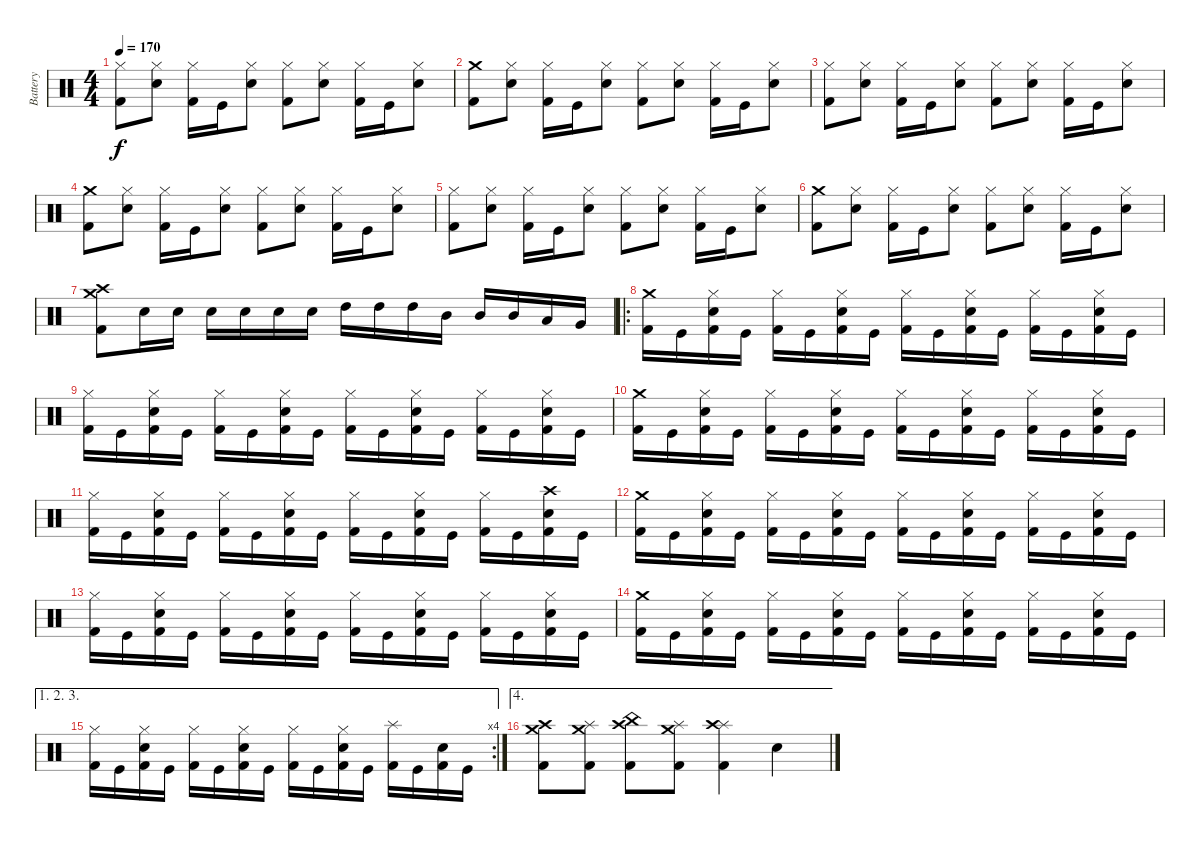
\track ("Battery" "Battery") {instrument percussion}
\staff {score}
\articulation defaults
\ts (4 4)
\tempo 170
\clef neutral
\ks c
("Hi-Hat (closed)" "Kick (hit) 2").8{dy f} ("Hi-Hat (closed)" "Snare (hit) 2").8 ("Hi-Hat (closed)" "Kick (hit) 2").16 "Kick (hit)".16 ("Hi-Hat (closed)" "Snare (hit) 2").8 ("Hi-Hat (closed)" "Kick (hit) 2").8 ("Hi-Hat (closed)" "Snare (hit) 2").8 ("Hi-Hat (closed)" "Kick (hit) 2").16 "Kick (hit)".16 ("Hi-Hat (closed)" "Snare (hit) 2").8 |
("Crash medium (hit)" "Kick (hit) 2").8 ("Hi-Hat (closed)" "Snare (hit) 2").8 ("Hi-Hat (closed)" "Kick (hit) 2").16 "Kick (hit)".16 ("Hi-Hat (closed)" "Snare (hit) 2").8 ("Hi-Hat (closed)" "Kick (hit) 2").8 ("Hi-Hat (closed)" "Snare (hit) 2").8 ("Hi-Hat (closed)" "Kick (hit) 2").16 "Kick (hit)".16 ("Hi-Hat (closed)" "Snare (hit) 2").8 |
("Hi-Hat (closed)" "Kick (hit) 2").8 ("Hi-Hat (closed)" "Snare (hit) 2").8 ("Hi-Hat (closed)" "Kick (hit) 2").16 "Kick (hit)".16 ("Hi-Hat (closed)" "Snare (hit) 2").8 ("Hi-Hat (closed)" "Kick (hit) 2").8 ("Hi-Hat (closed)" "Snare (hit) 2").8 ("Hi-Hat (closed)" "Kick (hit) 2").16 "Kick (hit)".16 ("Hi-Hat (closed)" "Snare (hit) 2").8 |
("Crash medium (hit)" "Kick (hit) 2").8 ("Hi-Hat (closed)" "Snare (hit) 2").8 ("Hi-Hat (closed)" "Kick (hit) 2").16 "Kick (hit)".16 ("Hi-Hat (closed)" "Snare (hit) 2").8 ("Hi-Hat (closed)" "Kick (hit) 2").8 ("Hi-Hat (closed)" "Snare (hit) 2").8 ("Hi-Hat (closed)" "Kick (hit) 2").16 "Kick (hit)".16 ("Hi-Hat (closed)" "Snare (hit) 2").8 |
("Hi-Hat (closed)" "Kick (hit) 2").8 ("Hi-Hat (closed)" "Snare (hit) 2").8 ("Hi-Hat (closed)" "Kick (hit) 2").16 "Kick (hit)".16 ("Hi-Hat (closed)" "Snare (hit) 2").8 ("Hi-Hat (closed)" "Kick (hit) 2").8 ("Hi-Hat (closed)" "Snare (hit) 2").8 ("Hi-Hat (closed)" "Kick (hit) 2").16 "Kick (hit)".16 ("Hi-Hat (closed)" "Snare (hit) 2").8 |
("Crash medium (hit)" "Kick (hit) 2").8 ("Hi-Hat (closed)" "Snare (hit) 2").8 ("Hi-Hat (closed)" "Kick (hit) 2").16 "Kick (hit)".16 ("Hi-Hat (closed)" "Snare (hit) 2").8 ("Hi-Hat (closed)" "Kick (hit) 2").8 ("Hi-Hat (closed)" "Snare (hit) 2").8 ("Hi-Hat (closed)" "Kick (hit) 2").16 "Kick (hit)".16 ("Hi-Hat (closed)" "Snare (hit) 2").8 |
("Crash high (hit)" "Crash medium (hit)" "Kick (hit) 2").8 "Snare (hit) 2".16 "Snare (hit) 2".16 "Snare (hit) 2".16 "Snare (hit) 2".16 "Snare (hit) 2".16 "Snare (hit) 2".16 "High Tom (hit)".16 "High Tom (hit)".16 "High Tom (hit)".16 "Mid Tom (hit)".16 "Mid Tom (hit)".16 "Mid Tom (hit)".16 "Low Tom (hit)".16 "Very Low Tom (hit)".16 |
\ro
("Crash medium (hit)" "Kick (hit) 2").16 "Kick (hit)".16 ("Hi-Hat (closed)" "Snare (hit) 2" "Kick (hit) 2").16 "Kick (hit)".16 ("Hi-Hat (closed)" "Kick (hit) 2").16 "Kick (hit)".16 ("Hi-Hat (closed)" "Snare (hit) 2" "Kick (hit) 2").16 "Kick (hit)".16 ("Hi-Hat (closed)" "Kick (hit) 2").16 "Kick (hit)".16 ("Hi-Hat (closed)" "Snare (hit) 2" "Kick (hit) 2").16 "Kick (hit)".16 ("Hi-Hat (closed)" "Kick (hit) 2").16 "Kick (hit)".16 ("Hi-Hat (closed)" "Snare (hit) 2" "Kick (hit) 2").16 "Kick (hit)".16 |
("Hi-Hat (closed)" "Kick (hit) 2").16 "Kick (hit)".16 ("Hi-Hat (closed)" "Snare (hit) 2" "Kick (hit) 2").16 "Kick (hit)".16 ("Hi-Hat (closed)" "Kick (hit) 2").16 "Kick (hit)".16 ("Hi-Hat (closed)" "Snare (hit) 2" "Kick (hit) 2").16 "Kick (hit)".16 ("Hi-Hat (closed)" "Kick (hit) 2").16 "Kick (hit)".16 ("Hi-Hat (closed)" "Snare (hit) 2" "Kick (hit) 2").16 "Kick (hit)".16 ("Hi-Hat (closed)" "Kick (hit) 2").16 "Kick (hit)".16 ("Hi-Hat (closed)" "Snare (hit) 2" "Kick (hit) 2").16 "Kick (hit)".16 |
("Crash medium (hit)" "Kick (hit) 2").16 "Kick (hit)".16 ("Hi-Hat (closed)" "Snare (hit) 2" "Kick (hit) 2").16 "Kick (hit)".16 ("Hi-Hat (closed)" "Kick (hit) 2").16 "Kick (hit)".16 ("Hi-Hat (closed)" "Snare (hit) 2" "Kick (hit) 2").16 "Kick (hit)".16 ("Hi-Hat (closed)" "Kick (hit) 2").16 "Kick (hit)".16 ("Hi-Hat (closed)" "Snare (hit) 2" "Kick (hit) 2").16 "Kick (hit)".16 ("Hi-Hat (closed)" "Kick (hit) 2").16 "Kick (hit)".16 ("Hi-Hat (closed)" "Snare (hit) 2" "Kick (hit) 2").16 "Kick (hit)".16 |
("Hi-Hat (closed)" "Kick (hit) 2").16 "Kick (hit)".16 ("Hi-Hat (closed)" "Snare (hit) 2" "Kick (hit) 2").16 "Kick (hit)".16 ("Hi-Hat (closed)" "Kick (hit) 2").16 "Kick (hit)".16 ("Hi-Hat (closed)" "Snare (hit) 2" "Kick (hit) 2").16 "Kick (hit)".16 ("Hi-Hat (closed)" "Kick (hit) 2").16 "Kick (hit)".16 ("Hi-Hat (closed)" "Snare (hit) 2" "Kick (hit) 2").16 "Kick (hit)".16 ("Hi-Hat (closed)" "Kick (hit) 2").16 "Kick (hit)".16 ("Crash high (hit)" "Snare (hit) 2" "Kick (hit) 2").16 "Kick (hit)".16 |
("Crash medium (hit)" "Kick (hit) 2").16 "Kick (hit)".16 ("Hi-Hat (closed)" "Snare (hit) 2" "Kick (hit) 2").16 "Kick (hit)".16 ("Hi-Hat (closed)" "Kick (hit) 2").16 "Kick (hit)".16 ("Hi-Hat (closed)" "Snare (hit) 2" "Kick (hit) 2").16 "Kick (hit)".16 ("Hi-Hat (closed)" "Kick (hit) 2").16 "Kick (hit)".16 ("Hi-Hat (closed)" "Snare (hit) 2" "Kick (hit) 2").16 "Kick (hit)".16 ("Hi-Hat (closed)" "Kick (hit) 2").16 "Kick (hit)".16 ("Hi-Hat (closed)" "Snare (hit) 2" "Kick (hit) 2").16 "Kick (hit)".16 |
("Hi-Hat (closed)" "Kick (hit) 2").16 "Kick (hit)".16 ("Hi-Hat (closed)" "Snare (hit) 2" "Kick (hit) 2").16 "Kick (hit)".16 ("Hi-Hat (closed)" "Kick (hit) 2").16 "Kick (hit)".16 ("Hi-Hat (closed)" "Snare (hit) 2" "Kick (hit) 2").16 "Kick (hit)".16 ("Hi-Hat (closed)" "Kick (hit) 2").16 "Kick (hit)".16 ("Hi-Hat (closed)" "Snare (hit) 2" "Kick (hit) 2").16 "Kick (hit)".16 ("Hi-Hat (closed)" "Kick (hit) 2").16 "Kick (hit)".16 ("Hi-Hat (closed)" "Snare (hit) 2" "Kick (hit) 2").16 "Kick (hit)".16 |
("Crash medium (hit)" "Kick (hit) 2").16 "Kick (hit)".16 ("Hi-Hat (closed)" "Snare (hit) 2" "Kick (hit) 2").16 "Kick (hit)".16 ("Hi-Hat (closed)" "Kick (hit) 2").16 "Kick (hit)".16 ("Hi-Hat (closed)" "Snare (hit) 2" "Kick (hit) 2").16 "Kick (hit)".16 ("Hi-Hat (closed)" "Kick (hit) 2").16 "Kick (hit)".16 ("Hi-Hat (closed)" "Snare (hit) 2" "Kick (hit) 2").16 "Kick (hit)".16 ("Hi-Hat (closed)" "Kick (hit) 2").16 "Kick (hit)".16 ("Hi-Hat (closed)" "Snare (hit) 2" "Kick (hit) 2").16 "Kick (hit)".16 |
\ae (1 2 3)
\rc 4
("Hi-Hat (closed)" "Kick (hit) 2").16 "Kick (hit)".16 ("Hi-Hat (closed)" "Snare (hit) 2" "Kick (hit) 2").16 "Kick (hit)".16 ("Hi-Hat (closed)" "Kick (hit) 2").16 "Kick (hit)".16 ("Hi-Hat (closed)" "Snare (hit) 2" "Kick (hit) 2").16 "Kick (hit)".16 ("Hi-Hat (closed)" "Kick (hit) 2").16 "Kick (hit)".16 ("Hi-Hat (closed)" "Snare (hit) 2" "Kick (hit) 2").16 "Kick (hit)".16 ("Splash (hit)" "Kick (hit) 2").16 "Kick (hit)".16 ("Snare (hit) 2" "Kick (hit) 2").16 "Kick (hit)".16 |
\ae 4
("Crash high (hit)" "Crash medium (hit)" "Kick (hit) 2").8 ("Crash medium (hit)" "Splash (hit)" "Kick (hit) 2").8 ("Crash high (hit)" "China (hit)" "Kick (hit) 2").8 ("Crash medium (hit)" "Splash (hit)" "Kick (hit) 2").8 ("Splash (hit)" "Crash high (hit)" "Kick (hit) 2").4 "Snare (hit) 2".4
